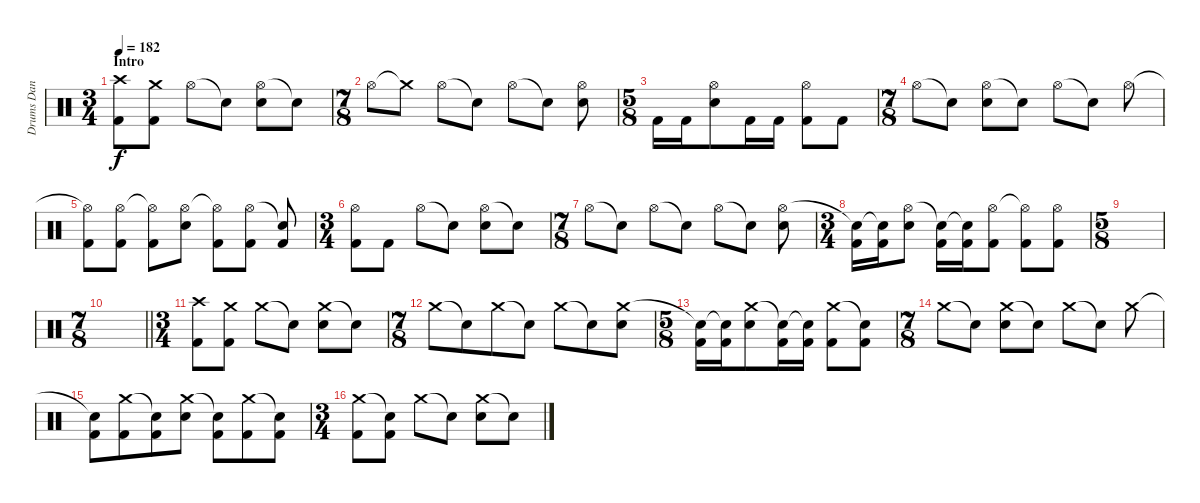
\track ("Drums Dan Searle" "Drums Dan ") {instrument percussion}
\staff {score}
\articulation defaults
\ts (3 4)
\section ("" "Intro")
\tempo 182
\clef neutral
\ks c
("Crash high (hit)" "Kick (hit) 2").8{dy f volume 10} ("Crash medium (hit)" "Kick (hit) 2").8 "Hi-Hat (open)".8 "Snare (hit)"{t}.8 ("Hi-Hat (open)" "Electric Snare (hit)").8 "Snare (hit)"{t}.8 |
\ts (7 8)
"Hi-Hat (open)".8 "Crash medium (hit)"{t}.8{beam split} "Hi-Hat (open)".8{beam merge} "Snare (hit)"{t}.8{beam split} "Hi-Hat (open)".8{beam merge} "Snare (hit)"{t}.8{beam split} ("Hi-Hat (open)" "Electric Snare (hit)").8 |
\ts (5 8)
"Kick (hit) 2".16 "Kick (hit) 2".16 ("Hi-Hat (open)" "Electric Snare (hit)").8 "Kick (hit) 2".16 "Kick (hit) 2".16 ("Hi-Hat (open)" "Kick (hit) 2").8 "Kick (hit) 2".8 |
\ts (7 8)
"Hi-Hat (open)".8 "Snare (hit)"{t}.8{beam split} ("Hi-Hat (open)" "Electric Snare (hit)").8{beam merge} "Snare (hit)"{t}.8{beam split} "Hi-Hat (open)".8{beam merge} "Snare (hit)"{t}.8{beam split} "Hi-Hat (open)".8 |
("Hi-Hat (open)"{t} "Kick (hit) 2").8 ("Hi-Hat (open)" "Kick (hit) 2").8{beam split} ("Hi-Hat (open)"{t} "Kick (hit) 2").8{beam merge} ("Hi-Hat (open)" "Electric Snare (hit)").8{beam split} ("Hi-Hat (open)"{t} "Kick (hit) 2").8{beam merge} ("Hi-Hat (open)" "Kick (hit) 2").8{beam split} ("Snare (hit)"{t} "Kick (hit) 2").8 |
\ts (3 4)
("Hi-Hat (open)" "Kick (hit) 2").8 "Kick (hit) 2".8 "Hi-Hat (open)".8 "Snare (hit)"{t}.8 ("Hi-Hat (open)" "Electric Snare (hit)").8 "Snare (hit)"{t}.8 |
\ts (7 8)
"Hi-Hat (open)".8 "Snare (hit)"{t}.8{beam split} "Hi-Hat (open)".8{beam merge} "Snare (hit)"{t}.8{beam split} "Hi-Hat (open)".8{beam merge} "Snare (hit)"{t}.8{beam split} ("Hi-Hat (open)" "Electric Snare (hit)").8 |
\ts (3 4)
("Snare (hit)"{t} "Kick (hit) 2").16 ("Snare (hit)"{t} "Kick (hit) 2").16 ("Hi-Hat (open)" "Electric Snare (hit)").8 ("Snare (hit)"{t} "Kick (hit) 2").16 ("Snare (hit)"{t} "Kick (hit) 2").16 ("Hi-Hat (open)" "Kick (hit) 2").8 ("Hi-Hat (open)"{t} "Kick (hit) 2").8 ("Hi-Hat (open)" "Kick (hit) 2").8 |
\ts (5 8)
|
\ts (7 8)
\barLineRight lightlight
|
\ts (3 4)
("Crash high (hit)" "Kick (hit) 2").8{volume 16} ("Crash medium (hit)" "Kick (hit) 2").8 "Crash medium (hit)".8 "Snare (hit)"{t}.8 ("Crash medium (hit)" "Electric Snare (hit)").8 "Snare (hit)"{t}.8 |
\ts (7 8)
"Crash medium (hit)".8 "Snare (hit)"{t}.8 "Crash medium (hit)".8 "Snare (hit)"{t}.8 "Crash medium (hit)".8 "Snare (hit)"{t}.8 ("Crash medium (hit)" "Electric Snare (hit)").8 |
\ts (5 8)
("Snare (hit)"{t} "Kick (hit) 2").16 ("Snare (hit)"{t} "Kick (hit) 2").16 ("Crash medium (hit)" "Electric Snare (hit)").8 ("Snare (hit)"{t} "Kick (hit) 2").16 ("Snare (hit)"{t} "Kick (hit) 2").16 ("Crash medium (hit)" "Kick (hit) 2").8 ("Snare (hit)"{t} "Kick (hit) 2").8 |
\ts (7 8)
"Crash medium (hit)".8 "Snare (hit)"{t}.8{beam split} ("Crash medium (hit)" "Electric Snare (hit)").8{beam merge} "Snare (hit)"{t}.8{beam split} "Crash medium (hit)".8{beam merge} "Snare (hit)"{t}.8{beam split} "Crash medium (hit)".8 |
("Snare (hit)"{t} "Kick (hit) 2").8 ("Crash medium (hit)" "Kick (hit) 2").8 ("Snare (hit)"{t} "Kick (hit) 2").8 ("Crash medium (hit)" "Electric Snare (hit)").8 ("Snare (hit)"{t} "Kick (hit) 2").8 ("Crash medium (hit)" "Kick (hit) 2").8 ("Snare (hit)"{t} "Kick (hit) 2").8 |
\ts (3 4)
("Crash medium (hit)" "Kick (hit) 2").8 ("Snare (hit)"{t} "Kick (hit) 2").8 "Crash medium (hit)".8 "Snare (hit)"{t}.8 ("Crash medium (hit)" "Electric Snare (hit)").8 "Snare (hit)"{t}.8
